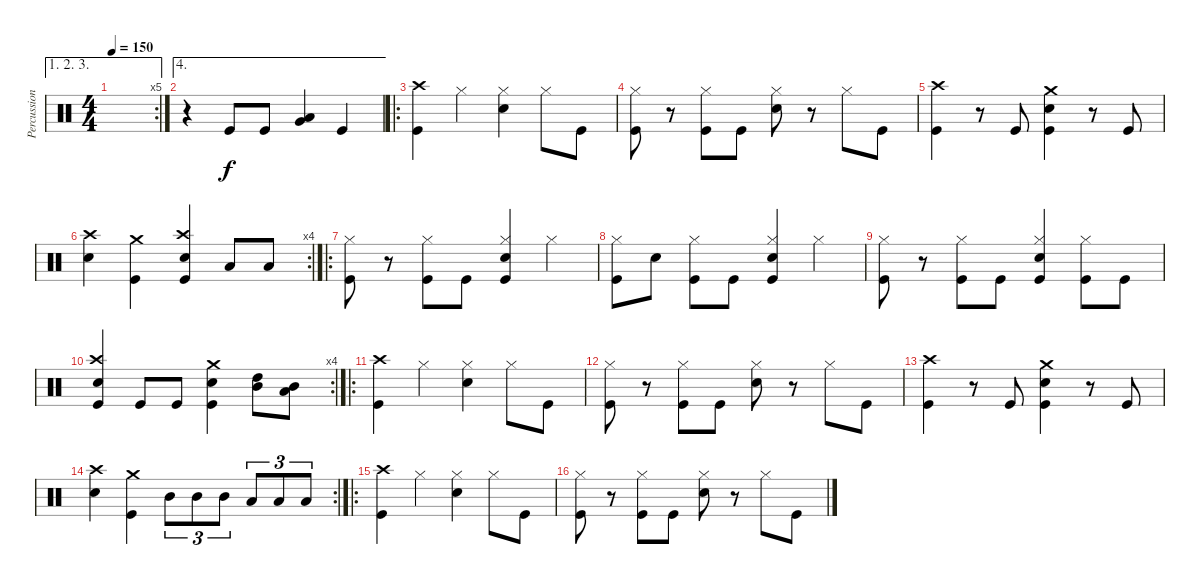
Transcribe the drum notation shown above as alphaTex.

\track ("Percussion" "Percussion") {instrument percussion}
\staff {score}
\articulation defaults
\ae (1 2 3)
\rc 5
\ts (4 4)
\tempo 150
\clef neutral
\ks c
|
\ae 4
r.4 "Kick (hit)".8 "Kick (hit)".8 ("Very Low Tom (hit)" "Low Tom (hit)").4 "Kick (hit)".4 |
\ro
("Crash high (hit)" "Kick (hit)").4 "Hi-Hat (closed)".4 ("Hi-Hat (closed)" "Snare (hit) 2").4 "Hi-Hat (closed)".8 "Kick (hit)".8 |
("Hi-Hat (closed)" "Kick (hit)").8 r.8 ("Hi-Hat (closed)" "Kick (hit)").8 "Kick (hit)".8 ("Hi-Hat (closed)" "Snare (hit) 2").8 r.8 "Hi-Hat (closed)".8 "Kick (hit)".8 |
("Crash high (hit)" "Kick (hit)").4 r.8 "Kick (hit)".8 ("Crash medium (hit)" "Snare (hit) 2" "Kick (hit)").4 r.8 "Kick (hit)".8 |
\rc 4
("Crash high (hit)" "Snare (hit) 2").4 ("Crash medium (hit)" "Kick (hit)").4 ("Crash high (hit)" "Snare (hit) 2" "Kick (hit)").4 "Low Tom (hit)".8 "Low Tom (hit)".8 |
\ro
("Hi-Hat (closed)" "Kick (hit)").8 r.8 ("Hi-Hat (closed)" "Kick (hit)").8 "Kick (hit)".8 ("Hi-Hat (closed)" "Snare (hit) 2" "Kick (hit)").4 "Hi-Hat (closed)".4 |
("Hi-Hat (closed)" "Kick (hit)").8 "Snare (hit) 2".8 ("Hi-Hat (closed)" "Kick (hit)").8 "Kick (hit)".8 ("Hi-Hat (closed)" "Snare (hit) 2" "Kick (hit)").4 "Hi-Hat (closed)".4 |
("Hi-Hat (closed)" "Kick (hit)").8 r.8 ("Hi-Hat (closed)" "Kick (hit)").8 "Kick (hit)".8 ("Hi-Hat (closed)" "Snare (hit) 2" "Kick (hit)").4 ("Hi-Hat (closed)" "Kick (hit)").8 "Kick (hit)".8 |
\rc 4
("Crash high (hit)" "Snare (hit) 2" "Kick (hit)").4 "Kick (hit)".8 "Kick (hit)".8 ("Crash medium (hit)" "Snare (hit) 2" "Kick (hit)").4 ("Mid Tom (hit)" "High Tom (hit)").8 ("Low Tom (hit)" "Mid Tom (hit)").8 |
\ro
("Crash high (hit)" "Kick (hit)").4 "Hi-Hat (closed)".4 ("Hi-Hat (closed)" "Snare (hit) 2").4 "Hi-Hat (closed)".8 "Kick (hit)".8 |
("Hi-Hat (closed)" "Kick (hit)").8 r.8 ("Hi-Hat (closed)" "Kick (hit)").8 "Kick (hit)".8 ("Hi-Hat (closed)" "Snare (hit) 2").8 r.8 "Hi-Hat (closed)".8 "Kick (hit)".8 |
("Crash high (hit)" "Kick (hit)").4 r.8 "Kick (hit)".8 ("Crash medium (hit)" "Snare (hit) 2" "Kick (hit)").4 r.8 "Kick (hit)".8 |
\rc 2
("Crash high (hit)" "Snare (hit) 2").4 ("Crash medium (hit)" "Kick (hit)").4 "Mid Tom (hit)".8{tu (3 2)} "Mid Tom (hit)".8{tu (3 2)} "Mid Tom (hit)".8{tu (3 2)} "Low Tom (hit)".8{tu (3 2)} "Low Tom (hit)".8{tu (3 2)} "Low Tom (hit)".8{tu (3 2)} |
\ro
("Crash high (hit)" "Kick (hit)").4 "Hi-Hat (closed)".4 ("Hi-Hat (closed)" "Snare (hit) 2").4 "Hi-Hat (closed)".8 "Kick (hit)".8 |
("Hi-Hat (closed)" "Kick (hit)").8 r.8 ("Hi-Hat (closed)" "Kick (hit)").8 "Kick (hit)".8 ("Hi-Hat (closed)" "Snare (hit) 2").8 r.8 "Hi-Hat (closed)".8 "Kick (hit)".8
